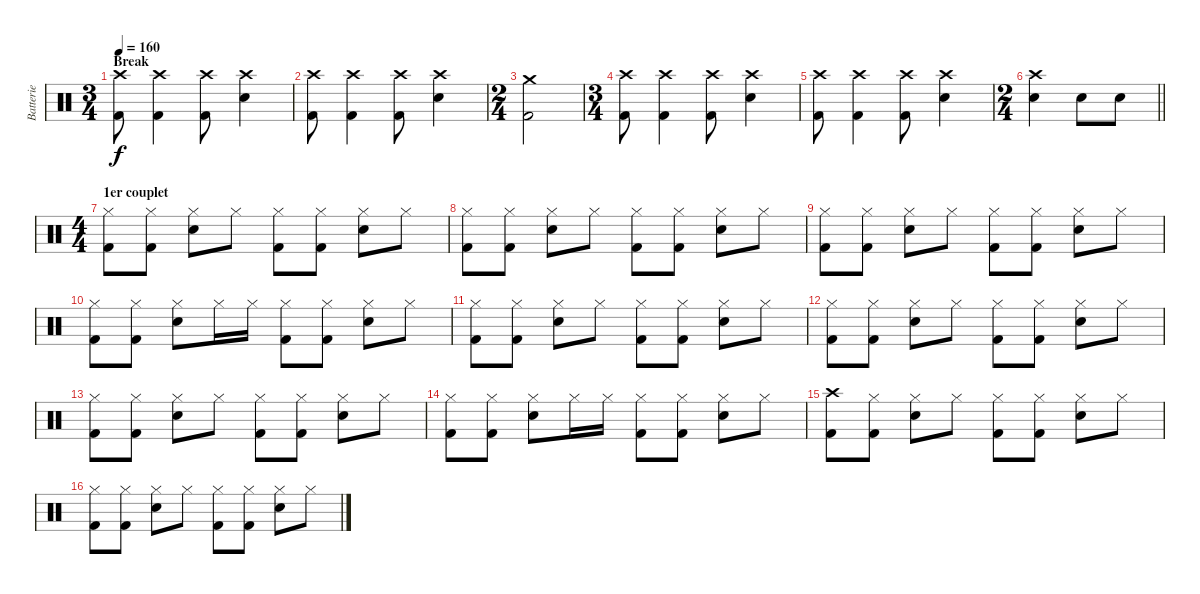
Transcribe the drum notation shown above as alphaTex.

\track ("Batterie" "Batterie") {instrument percussion}
\staff {score}
\articulation defaults
\ts (3 4)
\section ("" "Break")
\tempo 160
\clef neutral
\ks c
("Crash high (hit)" "Kick (hit) 2").8{dy f} ("Crash high (hit)" "Kick (hit) 2").4 ("Crash high (hit)" "Kick (hit) 2").8 ("Crash high (hit)" "Snare (hit) 2").4 |
("Crash high (hit)" "Kick (hit) 2").8 ("Crash high (hit)" "Kick (hit) 2").4 ("Crash high (hit)" "Kick (hit) 2").8 ("Crash high (hit)" "Snare (hit) 2").4 |
\ts (2 4)
("Crash medium (hit)" "Kick (hit) 2").2 |
\ts (3 4)
("Crash high (hit)" "Kick (hit) 2").8 ("Crash high (hit)" "Kick (hit) 2").4 ("Crash high (hit)" "Kick (hit) 2").8 ("Crash high (hit)" "Snare (hit) 2").4 |
("Crash high (hit)" "Kick (hit) 2").8 ("Crash high (hit)" "Kick (hit) 2").4 ("Crash high (hit)" "Kick (hit) 2").8 ("Crash high (hit)" "Snare (hit) 2").4 |
\ts (2 4)
\barLineRight lightlight
("Crash high (hit)" "Snare (hit) 2").4 "Snare (hit) 2".8 "Snare (hit) 2".8 |
\ts (4 4)
\section ("" "1er couplet")
("Hi-Hat (closed)" "Kick (hit) 2").8{volume 11} ("Hi-Hat (closed)" "Kick (hit) 2").8 ("Hi-Hat (closed)" "Electric Snare (hit)").8 "Hi-Hat (closed)".8 ("Hi-Hat (closed)" "Kick (hit) 2").8 ("Hi-Hat (closed)" "Kick (hit) 2").8 ("Hi-Hat (closed)" "Electric Snare (hit)").8 "Hi-Hat (closed)".8 |
("Hi-Hat (closed)" "Kick (hit) 2").8 ("Hi-Hat (closed)" "Kick (hit) 2").8 ("Hi-Hat (closed)" "Electric Snare (hit)").8 "Hi-Hat (closed)".8 ("Hi-Hat (closed)" "Kick (hit) 2").8 ("Hi-Hat (closed)" "Kick (hit) 2").8 ("Hi-Hat (closed)" "Electric Snare (hit)").8 "Hi-Hat (closed)".8 |
("Hi-Hat (closed)" "Kick (hit) 2").8 ("Hi-Hat (closed)" "Kick (hit) 2").8 ("Hi-Hat (closed)" "Electric Snare (hit)").8 "Hi-Hat (closed)".8 ("Hi-Hat (closed)" "Kick (hit) 2").8 ("Hi-Hat (closed)" "Kick (hit) 2").8 ("Hi-Hat (closed)" "Electric Snare (hit)").8 "Hi-Hat (closed)".8 |
("Hi-Hat (closed)" "Kick (hit) 2").8 ("Hi-Hat (closed)" "Kick (hit) 2").8 ("Hi-Hat (closed)" "Electric Snare (hit)").8 "Hi-Hat (closed)".16 "Hi-Hat (closed)".16 ("Hi-Hat (closed)" "Kick (hit) 2").8 ("Hi-Hat (closed)" "Kick (hit) 2").8 ("Hi-Hat (closed)" "Electric Snare (hit)").8 "Hi-Hat (closed)".8 |
("Hi-Hat (closed)" "Kick (hit) 2").8 ("Hi-Hat (closed)" "Kick (hit) 2").8 ("Hi-Hat (closed)" "Electric Snare (hit)").8 "Hi-Hat (closed)".8 ("Hi-Hat (closed)" "Kick (hit) 2").8 ("Hi-Hat (closed)" "Kick (hit) 2").8 ("Hi-Hat (closed)" "Electric Snare (hit)").8 "Hi-Hat (closed)".8 |
("Hi-Hat (closed)" "Kick (hit) 2").8 ("Hi-Hat (closed)" "Kick (hit) 2").8 ("Hi-Hat (closed)" "Electric Snare (hit)").8 "Hi-Hat (closed)".8 ("Hi-Hat (closed)" "Kick (hit) 2").8 ("Hi-Hat (closed)" "Kick (hit) 2").8 ("Hi-Hat (closed)" "Electric Snare (hit)").8 "Hi-Hat (closed)".8 |
("Hi-Hat (closed)" "Kick (hit) 2").8 ("Hi-Hat (closed)" "Kick (hit) 2").8 ("Hi-Hat (closed)" "Electric Snare (hit)").8 "Hi-Hat (closed)".8 ("Hi-Hat (closed)" "Kick (hit) 2").8 ("Hi-Hat (closed)" "Kick (hit) 2").8 ("Hi-Hat (closed)" "Electric Snare (hit)").8 "Hi-Hat (closed)".8 |
("Hi-Hat (closed)" "Kick (hit) 2").8 ("Hi-Hat (closed)" "Kick (hit) 2").8 ("Hi-Hat (closed)" "Electric Snare (hit)").8 "Hi-Hat (closed)".16 "Hi-Hat (closed)".16 ("Hi-Hat (closed)" "Kick (hit) 2").8 ("Hi-Hat (closed)" "Kick (hit) 2").8 ("Hi-Hat (closed)" "Electric Snare (hit)").8 "Hi-Hat (closed)".8 |
("Crash high (hit)" "Kick (hit) 2").8 ("Hi-Hat (closed)" "Kick (hit) 2").8 ("Hi-Hat (closed)" "Electric Snare (hit)").8 "Hi-Hat (closed)".8 ("Hi-Hat (closed)" "Kick (hit) 2").8 ("Hi-Hat (closed)" "Kick (hit) 2").8 ("Hi-Hat (closed)" "Electric Snare (hit)").8 "Hi-Hat (closed)".8 |
("Hi-Hat (closed)" "Kick (hit) 2").8 ("Hi-Hat (closed)" "Kick (hit) 2").8 ("Hi-Hat (closed)" "Electric Snare (hit)").8 "Hi-Hat (closed)".8 ("Hi-Hat (closed)" "Kick (hit) 2").8 ("Hi-Hat (closed)" "Kick (hit) 2").8 ("Hi-Hat (closed)" "Electric Snare (hit)").8 "Hi-Hat (closed)".8
